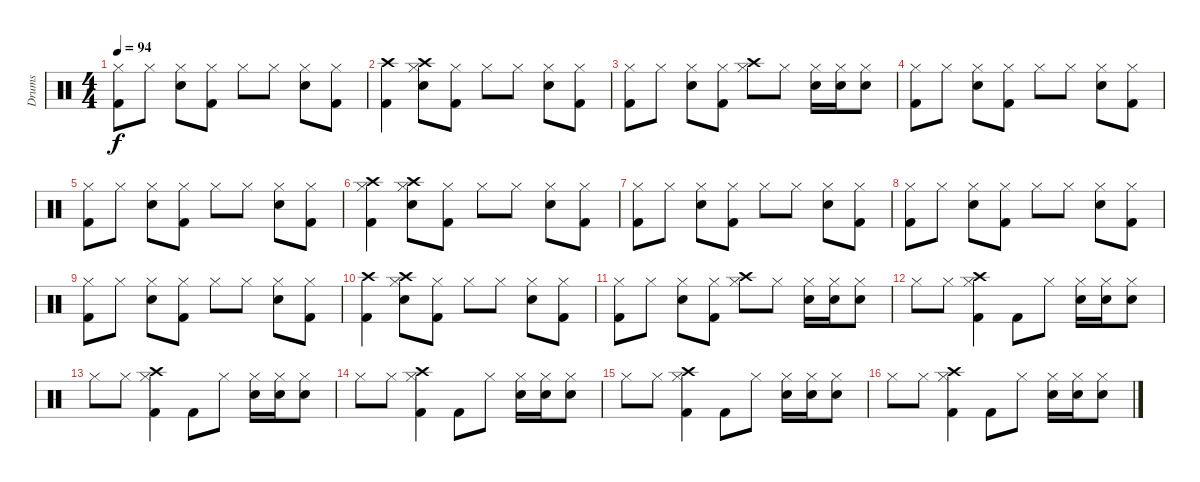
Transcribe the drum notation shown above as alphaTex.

\track ("Drums" "Drums") {instrument percussion}
\staff {score}
\articulation defaults
\ts (4 4)
\tempo 94
\clef neutral
\ks c
("Hi-Hat (closed)" "Kick (hit) 2").8{dy f} "Hi-Hat (closed)".8 ("Hi-Hat (closed)" "Electric Snare (hit)").8 ("Hi-Hat (closed)" "Kick (hit) 2").8 "Hi-Hat (closed)".8 "Hi-Hat (closed)".8 ("Hi-Hat (closed)" "Electric Snare (hit)").8 ("Hi-Hat (closed)" "Kick (hit) 2").8 |
("Crash high (hit)" "Kick (hit) 2").4 ("Crash high (hit)" "Hi-Hat (closed)" "Electric Snare (hit)").8 ("Hi-Hat (closed)" "Kick (hit) 2").8 "Hi-Hat (closed)".8 "Hi-Hat (closed)".8 ("Hi-Hat (closed)" "Electric Snare (hit)").8 ("Hi-Hat (closed)" "Kick (hit) 2").8 |
("Hi-Hat (closed)" "Kick (hit) 2").8 "Hi-Hat (closed)".8 ("Hi-Hat (closed)" "Electric Snare (hit)").8 ("Hi-Hat (closed)" "Kick (hit) 2").8 ("Crash high (hit)" "Hi-Hat (closed)").8 "Hi-Hat (closed)".8 ("Hi-Hat (closed)" "Electric Snare (hit)").16 ("Hi-Hat (closed)" "Electric Snare (hit)").16 ("Hi-Hat (closed)" "Electric Snare (hit)").8 |
("Hi-Hat (closed)" "Kick (hit) 2").8 "Hi-Hat (closed)".8 ("Hi-Hat (closed)" "Electric Snare (hit)").8 ("Hi-Hat (closed)" "Kick (hit) 2").8 "Hi-Hat (closed)".8 "Hi-Hat (closed)".8 ("Hi-Hat (closed)" "Electric Snare (hit)").8 ("Hi-Hat (closed)" "Kick (hit) 2").8 |
("Hi-Hat (closed)" "Kick (hit) 2").8 "Hi-Hat (closed)".8 ("Hi-Hat (closed)" "Electric Snare (hit)").8 ("Hi-Hat (closed)" "Kick (hit) 2").8 "Hi-Hat (closed)".8 "Hi-Hat (closed)".8 ("Hi-Hat (closed)" "Electric Snare (hit)").8 ("Hi-Hat (closed)" "Kick (hit) 2").8 |
("Crash high (hit)" "Hi-Hat (closed)" "Kick (hit) 2").4 ("Crash high (hit)" "Hi-Hat (closed)" "Electric Snare (hit)").8 ("Hi-Hat (closed)" "Kick (hit) 2").8 "Hi-Hat (closed)".8 "Hi-Hat (closed)".8 ("Hi-Hat (closed)" "Electric Snare (hit)").8 ("Hi-Hat (closed)" "Kick (hit) 2").8 |
("Hi-Hat (closed)" "Kick (hit) 2").8 "Hi-Hat (closed)".8 ("Hi-Hat (closed)" "Electric Snare (hit)").8 ("Hi-Hat (closed)" "Kick (hit) 2").8 "Hi-Hat (closed)".8 "Hi-Hat (closed)".8 ("Hi-Hat (closed)" "Electric Snare (hit)").8 ("Hi-Hat (closed)" "Kick (hit) 2").8 |
("Hi-Hat (closed)" "Kick (hit) 2").8 "Hi-Hat (closed)".8 ("Hi-Hat (closed)" "Electric Snare (hit)").8 ("Hi-Hat (closed)" "Kick (hit) 2").8 "Hi-Hat (closed)".8 "Hi-Hat (closed)".8 ("Hi-Hat (closed)" "Electric Snare (hit)").8 ("Hi-Hat (closed)" "Kick (hit) 2").8 |
("Hi-Hat (closed)" "Kick (hit) 2").8 "Hi-Hat (closed)".8 ("Hi-Hat (closed)" "Electric Snare (hit)").8 ("Hi-Hat (closed)" "Kick (hit) 2").8 "Hi-Hat (closed)".8 "Hi-Hat (closed)".8 ("Hi-Hat (closed)" "Electric Snare (hit)").8 ("Hi-Hat (closed)" "Kick (hit) 2").8 |
("Crash high (hit)" "Kick (hit) 2").4 ("Crash high (hit)" "Hi-Hat (closed)" "Electric Snare (hit)").8 ("Hi-Hat (closed)" "Kick (hit) 2").8 "Hi-Hat (closed)".8 "Hi-Hat (closed)".8 ("Hi-Hat (closed)" "Electric Snare (hit)").8 ("Hi-Hat (closed)" "Kick (hit) 2").8 |
("Hi-Hat (closed)" "Kick (hit) 2").8 "Hi-Hat (closed)".8 ("Hi-Hat (closed)" "Electric Snare (hit)").8 ("Hi-Hat (closed)" "Kick (hit) 2").8 ("Crash high (hit)" "Hi-Hat (closed)").8 "Hi-Hat (closed)".8 ("Hi-Hat (closed)" "Electric Snare (hit)").16 ("Hi-Hat (closed)" "Electric Snare (hit)").16 ("Hi-Hat (closed)" "Electric Snare (hit)").8 |
"Hi-Hat (closed)".8 "Hi-Hat (closed)".8 ("Crash high (hit)" "Hi-Hat (closed)" "Kick (hit) 2").4 "Kick (hit) 2".8 "Hi-Hat (closed)".8 ("Hi-Hat (closed)" "Electric Snare (hit)").16 ("Hi-Hat (closed)" "Electric Snare (hit)").16 ("Hi-Hat (closed)" "Electric Snare (hit)").8 |
"Hi-Hat (closed)".8 "Hi-Hat (closed)".8 ("Crash high (hit)" "Hi-Hat (closed)" "Kick (hit) 2").4 "Kick (hit) 2".8 "Hi-Hat (closed)".8 ("Hi-Hat (closed)" "Electric Snare (hit)").16 ("Hi-Hat (closed)" "Electric Snare (hit)").16 ("Hi-Hat (closed)" "Electric Snare (hit)").8 |
"Hi-Hat (closed)".8 "Hi-Hat (closed)".8 ("Crash high (hit)" "Hi-Hat (closed)" "Kick (hit) 2").4 "Kick (hit) 2".8 "Hi-Hat (closed)".8 ("Hi-Hat (closed)" "Electric Snare (hit)").16 ("Hi-Hat (closed)" "Electric Snare (hit)").16 ("Hi-Hat (closed)" "Electric Snare (hit)").8 |
"Hi-Hat (closed)".8 "Hi-Hat (closed)".8 ("Crash high (hit)" "Hi-Hat (closed)" "Kick (hit) 2").4 "Kick (hit) 2".8 "Hi-Hat (closed)".8 ("Hi-Hat (closed)" "Electric Snare (hit)").16 ("Hi-Hat (closed)" "Electric Snare (hit)").16 ("Hi-Hat (closed)" "Electric Snare (hit)").8 |
"Hi-Hat (closed)".8 "Hi-Hat (closed)".8 ("Crash high (hit)" "Hi-Hat (closed)" "Kick (hit) 2").4 "Kick (hit) 2".8 "Hi-Hat (closed)".8 ("Hi-Hat (closed)" "Electric Snare (hit)").16 ("Hi-Hat (closed)" "Electric Snare (hit)").16 ("Hi-Hat (closed)" "Electric Snare (hit)").8
